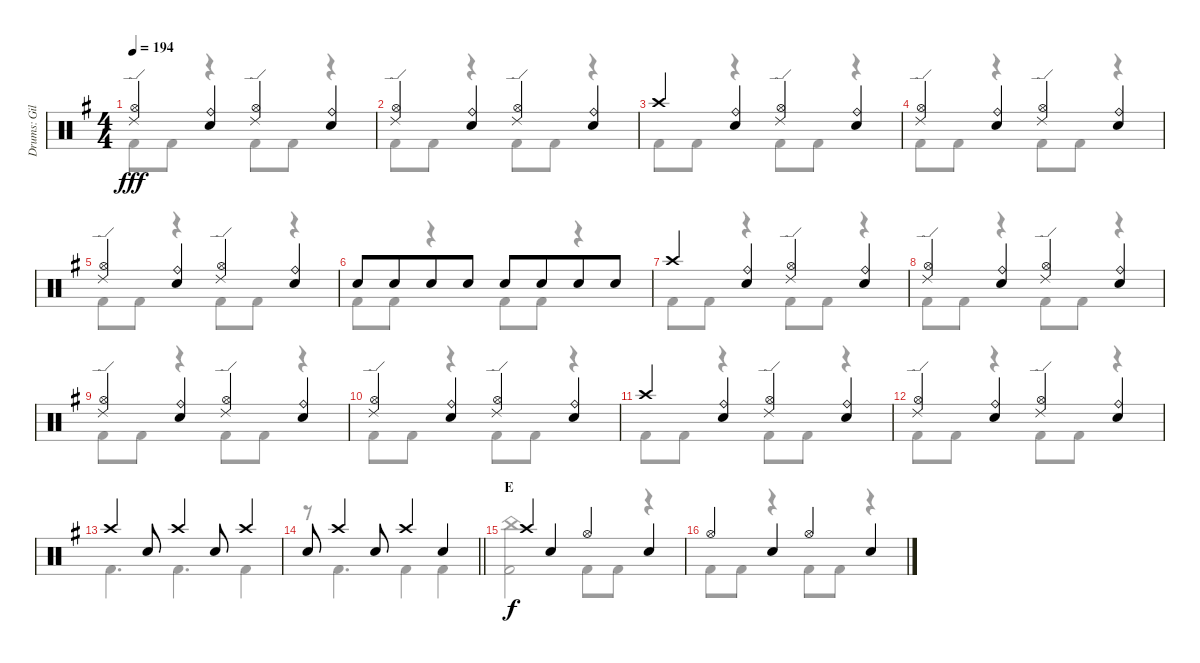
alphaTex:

\track ("Drums: Gil" "Drums: Gil") {instrument percussion}
\staff {score}
\articulation defaults
\voice
\ts (4 4)
\tempo 194
\clef neutral
\ks g
("Ride (edge) 2" "Hi-Hat (open)").4{dy fff} ("Ride (bell)" "Snare (hit) 2").4 ("Ride (edge) 2" "Hi-Hat (open)").4 ("Ride (bell)" "Snare (hit) 2").4 |
("Ride (edge) 2" "Hi-Hat (open)").4 ("Ride (bell)" "Snare (hit) 2").4 ("Ride (edge) 2" "Hi-Hat (open)").4 ("Ride (bell)" "Snare (hit) 2").4 |
"Crash high (hit)".4 ("Ride (bell)" "Snare (hit) 2").4 ("Ride (edge) 2" "Hi-Hat (open)").4 ("Ride (bell)" "Snare (hit) 2").4 |
("Ride (edge) 2" "Hi-Hat (open)").4 ("Ride (bell)" "Snare (hit) 2").4 ("Ride (edge) 2" "Hi-Hat (open)").4 ("Ride (bell)" "Snare (hit) 2").4 |
("Ride (edge) 2" "Hi-Hat (open)").4 ("Ride (bell)" "Snare (hit) 2").4 ("Ride (edge) 2" "Hi-Hat (open)").4 ("Ride (bell)" "Snare (hit) 2").4 |
"Snare (hit) 2".8 "Snare (hit) 2".8{beam merge} "Snare (hit) 2".8 "Snare (hit) 2".8 "Snare (hit) 2".8 "Snare (hit) 2".8{beam merge} "Snare (hit) 2".8 "Snare (hit) 2".8 |
"Crash high (hit)".4 ("Ride (bell)" "Snare (hit) 2").4 ("Ride (edge) 2" "Hi-Hat (open)").4 ("Ride (bell)" "Snare (hit) 2").4 |
("Ride (edge) 2" "Hi-Hat (open)").4 ("Ride (bell)" "Snare (hit) 2").4 ("Ride (edge) 2" "Hi-Hat (open)").4 ("Ride (bell)" "Snare (hit) 2").4 |
("Ride (edge) 2" "Hi-Hat (open)").4 ("Ride (bell)" "Snare (hit) 2").4 ("Ride (edge) 2" "Hi-Hat (open)").4 ("Ride (bell)" "Snare (hit) 2").4 |
("Ride (edge) 2" "Hi-Hat (open)").4 ("Ride (bell)" "Snare (hit) 2").4 ("Ride (edge) 2" "Hi-Hat (open)").4 ("Ride (bell)" "Snare (hit) 2").4 |
"Crash high (hit)".4 ("Ride (bell)" "Snare (hit) 2").4 ("Ride (edge) 2" "Hi-Hat (open)").4 ("Ride (bell)" "Snare (hit) 2").4 |
("Ride (edge) 2" "Hi-Hat (open)").4 ("Ride (bell)" "Snare (hit) 2").4 ("Ride (edge) 2" "Hi-Hat (open)").4 ("Ride (bell)" "Snare (hit) 2").4 |
"Crash high (hit)".4 "Snare (hit) 2".8 "Crash high (hit)".4 "Snare (hit) 2".8 "Crash high (hit)".4 |
\barLineRight lightlight "Snare (hit) 2".8 "Crash high (hit)".4 "Snare (hit) 2".8 "Crash high (hit)".4 "Snare (hit) 2".4
|
\section ("" "E")
"Crash high (hit)".4{dy f} "Snare (hit) 2".4 "Hi-Hat (open)".4 "Snare (hit) 2".4 |
"Hi-Hat (open)".4 "Snare (hit) 2".4 "Hi-Hat (open)".4 "Snare (hit) 2".4
\voice
\clef neutral
\ottava regular
\simile none
\ks g "Kick (hit) 2".8{dy fff} "Kick (hit) 2".8
r.4 "Kick (hit) 2".8 "Kick (hit) 2".8 r.4 |
"Kick (hit) 2".8 "Kick (hit) 2".8 r.4 "Kick (hit) 2".8 "Kick (hit) 2".8 r.4 |
"Kick (hit) 2".8 "Kick (hit) 2".8 r.4 "Kick (hit) 2".8 "Kick (hit) 2".8 r.4 |
"Kick (hit) 2".8 "Kick (hit) 2".8 r.4 "Kick (hit) 2".8 "Kick (hit) 2".8 r.4 |
"Kick (hit) 2".8 "Kick (hit) 2".8 r.4 "Kick (hit) 2".8 "Kick (hit) 2".8 r.4 |
"Kick (hit) 2".8 "Kick (hit) 2".8 r.4 "Kick (hit) 2".8 "Kick (hit) 2".8 r.4 |
"Kick (hit) 2".8 "Kick (hit) 2".8 r.4 "Kick (hit) 2".8 "Kick (hit) 2".8 r.4 |
"Kick (hit) 2".8 "Kick (hit) 2".8 r.4 "Kick (hit) 2".8 "Kick (hit) 2".8 r.4 |
"Kick (hit) 2".8 "Kick (hit) 2".8 r.4 "Kick (hit) 2".8 "Kick (hit) 2".8 r.4 |
"Kick (hit) 2".8 "Kick (hit) 2".8 r.4 "Kick (hit) 2".8 "Kick (hit) 2".8 r.4 |
"Kick (hit) 2".8 "Kick (hit) 2".8 r.4 "Kick (hit) 2".8 "Kick (hit) 2".8 r.4 |
"Kick (hit) 2".8 "Kick (hit) 2".8 r.4 "Kick (hit) 2".8 "Kick (hit) 2".8 r.4 |
"Kick (hit) 2".4{d} "Kick (hit) 2".4{d} "Kick (hit) 2".4 |
\barLineRight lightlight
r.8 "Kick (hit) 2".4{d} "Kick (hit) 2".4 "Kick (hit) 2".4 |
("China (hit)" "Kick (hit) 2").2 "Kick (hit) 2".8 "Kick (hit) 2".8{beam merge} r.4 |
"Kick (hit) 2".8 "Kick (hit) 2".8 r.4 "Kick (hit) 2".8 "Kick (hit) 2".8 r.4
